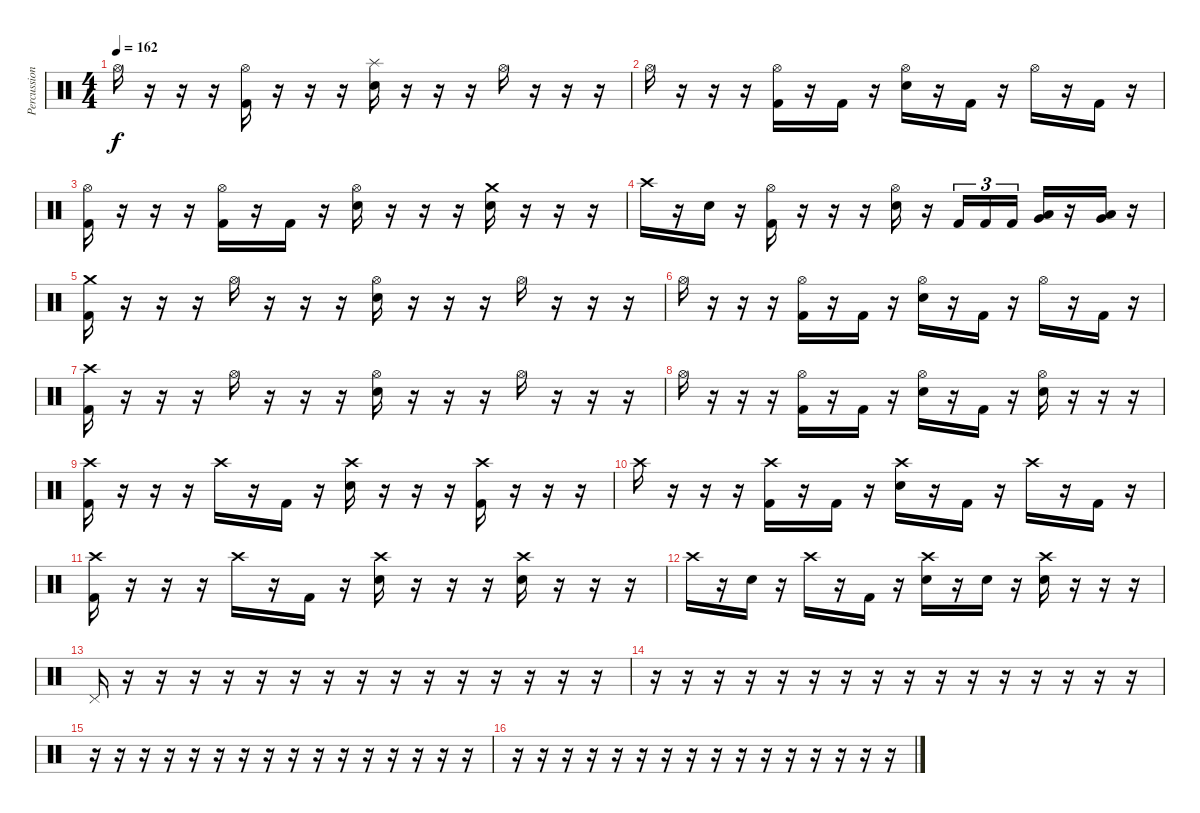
\track ("Percussion" "Percussion") {instrument percussion}
\staff {score}
\articulation defaults
\ts (4 4)
\tempo 162
\clef neutral
\ks c "Hi-Hat (open)".16{dy f}
r.16 r.16 r.16 ("Hi-Hat (open)" "Kick (hit) 2").16 r.16 r.16 r.16 ("Splash (hit)" "Electric Snare (hit)").16 r.16 r.16 r.16 "Hi-Hat (open)".16 r.16 r.16 r.16 |
"Hi-Hat (open)".16 r.16 r.16 r.16 ("Hi-Hat (open)" "Kick (hit) 2").16 r.16 "Kick (hit) 2".16 r.16 ("Hi-Hat (open)" "Electric Snare (hit)").16 r.16 "Kick (hit) 2".16 r.16 "Hi-Hat (open)".16 r.16 "Kick (hit) 2".16 r.16 |
("Hi-Hat (open)" "Kick (hit) 2").16 r.16 r.16 r.16 ("Hi-Hat (open)" "Kick (hit) 2").16 r.16 "Kick (hit) 2".16 r.16 ("Hi-Hat (open)" "Electric Snare (hit)").16 r.16 r.16 r.16 ("Crash medium (hit)" "Electric Snare (hit)").16 r.16 r.16 r.16 |
"Crash high (hit)".16 r.16 "Electric Snare (hit)".16 r.16 ("Hi-Hat (open)" "Kick (hit) 2").16 r.16 r.16 r.16 ("Hi-Hat (open)" "Electric Snare (hit)").16 r.16 "Kick (hit) 2".16{tu (3 2)} "Kick (hit) 2".16{tu (3 2)} "Kick (hit) 2".16{tu (3 2)} ("Low Tom (hit)" "Very Low Tom (hit)").16 r.16 ("Low Tom (hit)" "Very Low Tom (hit)").16 r.16 |
("Crash medium (hit)" "Kick (hit) 2").16 r.16 r.16 r.16 "Hi-Hat (open)".16 r.16 r.16 r.16 ("Hi-Hat (open)" "Electric Snare (hit)").16 r.16 r.16 r.16 "Hi-Hat (open)".16 r.16 r.16 r.16 |
"Hi-Hat (open)".16 r.16 r.16 r.16 ("Hi-Hat (open)" "Kick (hit) 2").16 r.16 "Kick (hit) 2".16 r.16 ("Hi-Hat (open)" "Electric Snare (hit)").16 r.16 "Kick (hit) 2".16 r.16 "Hi-Hat (open)".16 r.16 "Kick (hit) 2".16 r.16 |
("Crash high (hit)" "Kick (hit) 2").16 r.16 r.16 r.16 "Hi-Hat (open)".16 r.16 r.16 r.16 ("Hi-Hat (open)" "Electric Snare (hit)").16 r.16 r.16 r.16 "Hi-Hat (open)".16 r.16 r.16 r.16 |
"Hi-Hat (open)".16 r.16 r.16 r.16 ("Hi-Hat (open)" "Kick (hit) 2").16 r.16 "Kick (hit) 2".16 r.16 ("Hi-Hat (open)" "Electric Snare (hit)").16 r.16 "Kick (hit) 2".16 r.16 ("Hi-Hat (open)" "Electric Snare (hit)").16 r.16 r.16 r.16 |
("Crash high (hit)" "Kick (hit) 2").16 r.16 r.16 r.16 "Crash high (hit)".16 r.16 "Kick (hit) 2".16 r.16 ("Crash high (hit)" "Electric Snare (hit)").16 r.16 r.16 r.16 ("Crash high (hit)" "Kick (hit) 2").16 r.16 r.16 r.16 |
"Crash high (hit)".16 r.16 r.16 r.16 ("Crash high (hit)" "Kick (hit) 2").16 r.16 "Kick (hit) 2".16 r.16 ("Crash high (hit)" "Electric Snare (hit)").16 r.16 "Kick (hit) 2".16 r.16 "Crash high (hit)".16 r.16 "Kick (hit) 2".16 r.16 |
("Crash high (hit)" "Kick (hit) 2").16 r.16 r.16 r.16 "Crash high (hit)".16 r.16 "Kick (hit) 2".16 r.16 ("Crash high (hit)" "Electric Snare (hit)").16 r.16 r.16 r.16 ("Crash high (hit)" "Electric Snare (hit)").16 r.16 r.16 r.16 |
"Crash high (hit)".16 r.16 "Electric Snare (hit)".16 r.16 "Crash high (hit)".16 r.16 "Kick (hit) 2".16 r.16 ("Crash high (hit)" "Electric Snare (hit)").16 r.16 "Electric Snare (hit)".16 r.16 ("Crash high (hit)" "Electric Snare (hit)").16 r.16 r.16 r.16 |
"Pedal Hi-Hat (hit)".16 r.16 r.16 r.16 r.16 r.16 r.16 r.16 r.16 r.16 r.16 r.16 r.16 r.16 r.16 r.16 |
r.16 r.16 r.16 r.16 r.16 r.16 r.16 r.16 r.16 r.16 r.16 r.16 r.16 r.16 r.16 r.16 |
r.16 r.16 r.16 r.16 r.16 r.16 r.16 r.16 r.16 r.16 r.16 r.16 r.16 r.16 r.16 r.16 |
r.16 r.16 r.16 r.16 r.16 r.16 r.16 r.16 r.16 r.16 r.16 r.16 r.16 r.16 r.16 r.16
